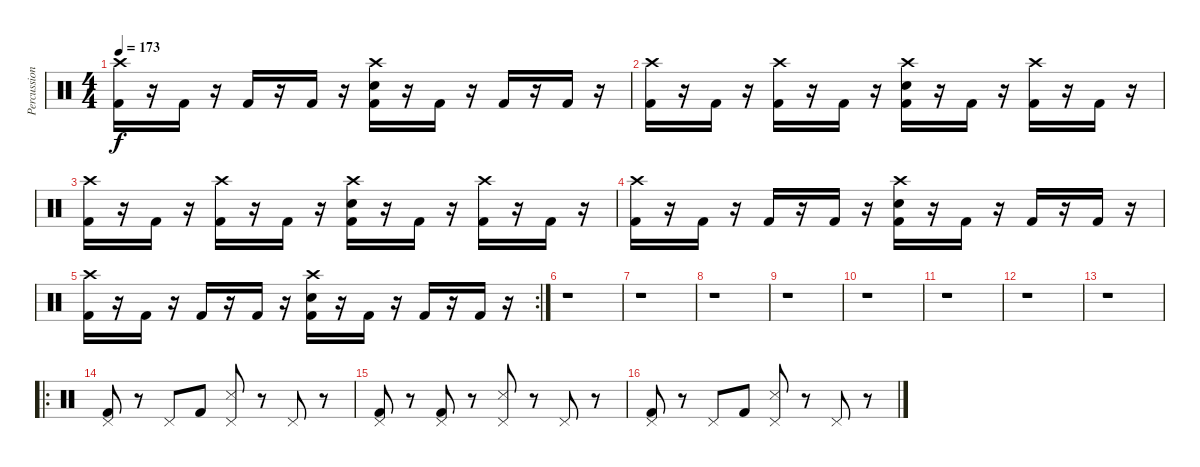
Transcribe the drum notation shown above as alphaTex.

\track ("Percussion" "Percussion") {instrument percussion}
\staff {score}
\articulation defaults
\ts (4 4)
\tempo 173
\clef neutral
\ks c
("Crash high (hit)" "Kick (hit) 2").16{dy f} r.16 "Kick (hit) 2".16 r.16 "Kick (hit) 2".16 r.16 "Kick (hit) 2".16 r.16 ("Crash high (hit)" "Electric Snare (hit)" "Kick (hit) 2").16 r.16 "Kick (hit) 2".16 r.16 "Kick (hit) 2".16 r.16 "Kick (hit) 2".16 r.16 |
("Crash high (hit)" "Kick (hit) 2").16 r.16 "Kick (hit) 2".16 r.16 ("Crash high (hit)" "Kick (hit) 2").16 r.16 "Kick (hit) 2".16 r.16 ("Crash high (hit)" "Electric Snare (hit)" "Kick (hit) 2").16 r.16 "Kick (hit) 2".16 r.16 ("Crash high (hit)" "Kick (hit) 2").16 r.16 "Kick (hit) 2".16 r.16 |
("Crash high (hit)" "Kick (hit) 2").16 r.16 "Kick (hit) 2".16 r.16 ("Crash high (hit)" "Kick (hit) 2").16 r.16 "Kick (hit) 2".16 r.16 ("Crash high (hit)" "Electric Snare (hit)" "Kick (hit) 2").16 r.16 "Kick (hit) 2".16 r.16 ("Crash high (hit)" "Kick (hit) 2").16 r.16 "Kick (hit) 2".16 r.16 |
("Crash high (hit)" "Kick (hit) 2").16 r.16 "Kick (hit) 2".16 r.16 "Kick (hit) 2".16 r.16 "Kick (hit) 2".16 r.16 ("Crash high (hit)" "Electric Snare (hit)" "Kick (hit) 2").16 r.16 "Kick (hit) 2".16 r.16 "Kick (hit) 2".16 r.16 "Kick (hit) 2".16 r.16 |
\rc 2
("Crash high (hit)" "Kick (hit) 2").16 r.16 "Kick (hit) 2".16 r.16 "Kick (hit) 2".16 r.16 "Kick (hit) 2".16 r.16 ("Crash high (hit)" "Electric Snare (hit)" "Kick (hit) 2").16 r.16 "Kick (hit) 2".16 r.16 "Kick (hit) 2".16 r.16 "Kick (hit) 2".16 r.16 |
r.1 |
r.1 |
r.1 |
r.1 |
r.1 |
r.1 |
r.1 |
r.1 |
\ro
("Pedal Hi-Hat (hit)" "Kick (hit) 2").8 r.8 "Pedal Hi-Hat (hit)".8 "Kick (hit) 2".8 ("Pedal Hi-Hat (hit)" "Snare (side stick) 3").8 r.8 "Pedal Hi-Hat (hit)".8 r.8 |
("Pedal Hi-Hat (hit)" "Kick (hit) 2").8 r.8 ("Pedal Hi-Hat (hit)" "Kick (hit) 2").8 r.8 ("Pedal Hi-Hat (hit)" "Snare (side stick) 3").8 r.8 "Pedal Hi-Hat (hit)".8 r.8 |
("Pedal Hi-Hat (hit)" "Kick (hit) 2").8 r.8 "Pedal Hi-Hat (hit)".8 "Kick (hit) 2".8 ("Pedal Hi-Hat (hit)" "Snare (side stick) 3").8 r.8 "Pedal Hi-Hat (hit)".8 r.8
